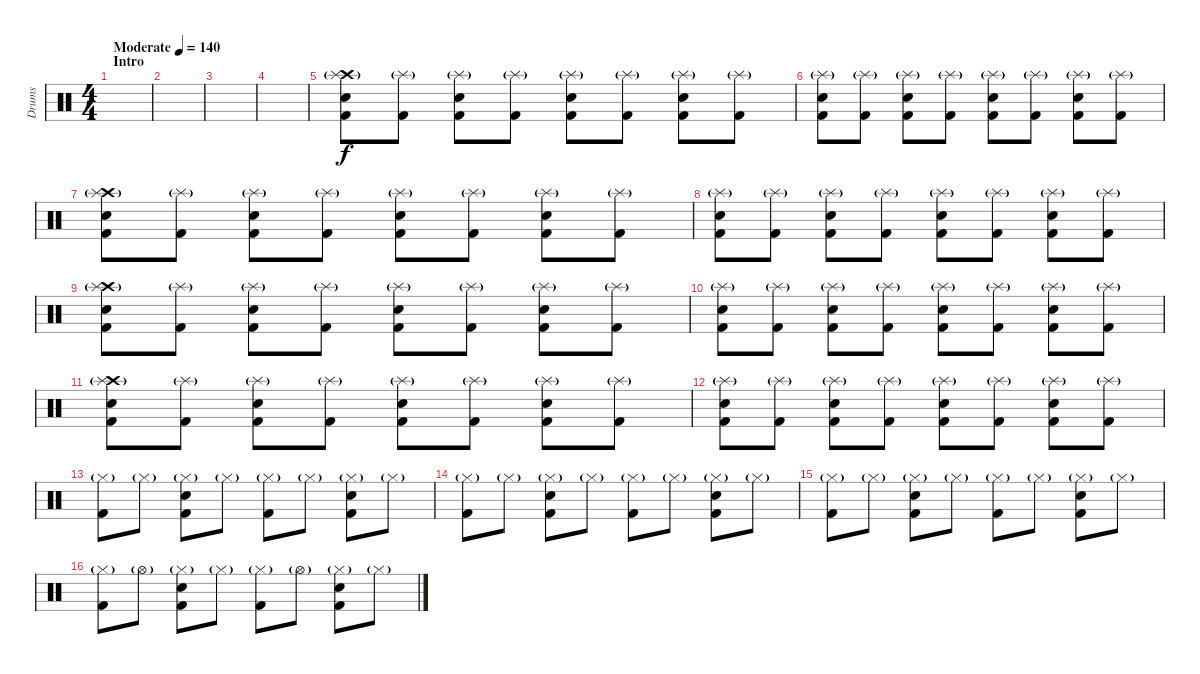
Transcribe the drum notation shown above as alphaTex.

\track ("Drums" "Drums") {instrument percussion}
\staff {score}
\articulation defaults
\ts (4 4)
\section ("" "Intro")
\tempo (140 "Moderate")
\clef neutral
\ks c
|
|
|
|
("Crash high (hit)" "Splash (hit)"{g} "Electric Snare (hit)" "Kick (hit) 2").8 ("Splash (hit)"{g} "Kick (hit) 2").8 ("Splash (hit)"{g} "Electric Snare (hit)" "Kick (hit) 2").8 ("Splash (hit)"{g} "Kick (hit) 2").8 ("Splash (hit)"{g} "Electric Snare (hit)" "Kick (hit) 2").8 ("Splash (hit)"{g} "Kick (hit) 2").8 ("Splash (hit)"{g} "Electric Snare (hit)" "Kick (hit) 2").8 ("Splash (hit)"{g} "Kick (hit) 2").8 |
("Splash (hit)"{g} "Electric Snare (hit)" "Kick (hit) 2").8 ("Splash (hit)"{g} "Kick (hit) 2").8 ("Splash (hit)"{g} "Electric Snare (hit)" "Kick (hit) 2").8 ("Splash (hit)"{g} "Kick (hit) 2").8 ("Splash (hit)"{g} "Electric Snare (hit)" "Kick (hit) 2").8 ("Splash (hit)"{g} "Kick (hit) 2").8 ("Splash (hit)"{g} "Electric Snare (hit)" "Kick (hit) 2").8 ("Splash (hit)"{g} "Kick (hit) 2").8 |
("Crash high (hit)" "Splash (hit)"{g} "Electric Snare (hit)" "Kick (hit) 2").8 ("Splash (hit)"{g} "Kick (hit) 2").8 ("Splash (hit)"{g} "Electric Snare (hit)" "Kick (hit) 2").8 ("Splash (hit)"{g} "Kick (hit) 2").8 ("Splash (hit)"{g} "Electric Snare (hit)" "Kick (hit) 2").8 ("Splash (hit)"{g} "Kick (hit) 2").8 ("Splash (hit)"{g} "Electric Snare (hit)" "Kick (hit) 2").8 ("Splash (hit)"{g} "Kick (hit) 2").8 |
("Splash (hit)"{g} "Electric Snare (hit)" "Kick (hit) 2").8 ("Splash (hit)"{g} "Kick (hit) 2").8 ("Splash (hit)"{g} "Electric Snare (hit)" "Kick (hit) 2").8 ("Splash (hit)"{g} "Kick (hit) 2").8 ("Splash (hit)"{g} "Electric Snare (hit)" "Kick (hit) 2").8 ("Splash (hit)"{g} "Kick (hit) 2").8 ("Splash (hit)"{g} "Electric Snare (hit)" "Kick (hit) 2").8 ("Splash (hit)"{g} "Kick (hit) 2").8 |
("Crash high (hit)" "Splash (hit)"{g} "Electric Snare (hit)" "Kick (hit) 2").8 ("Splash (hit)"{g} "Kick (hit) 2").8 ("Splash (hit)"{g} "Electric Snare (hit)" "Kick (hit) 2").8 ("Splash (hit)"{g} "Kick (hit) 2").8 ("Splash (hit)"{g} "Electric Snare (hit)" "Kick (hit) 2").8 ("Splash (hit)"{g} "Kick (hit) 2").8 ("Splash (hit)"{g} "Electric Snare (hit)" "Kick (hit) 2").8 ("Splash (hit)"{g} "Kick (hit) 2").8 |
("Splash (hit)"{g} "Electric Snare (hit)" "Kick (hit) 2").8 ("Splash (hit)"{g} "Kick (hit) 2").8 ("Splash (hit)"{g} "Electric Snare (hit)" "Kick (hit) 2").8 ("Splash (hit)"{g} "Kick (hit) 2").8 ("Splash (hit)"{g} "Electric Snare (hit)" "Kick (hit) 2").8 ("Splash (hit)"{g} "Kick (hit) 2").8 ("Splash (hit)"{g} "Electric Snare (hit)" "Kick (hit) 2").8 ("Splash (hit)"{g} "Kick (hit) 2").8 |
("Crash high (hit)" "Splash (hit)"{g} "Electric Snare (hit)" "Kick (hit) 2").8 ("Splash (hit)"{g} "Kick (hit) 2").8 ("Splash (hit)"{g} "Electric Snare (hit)" "Kick (hit) 2").8 ("Splash (hit)"{g} "Kick (hit) 2").8 ("Splash (hit)"{g} "Electric Snare (hit)" "Kick (hit) 2").8 ("Splash (hit)"{g} "Kick (hit) 2").8 ("Splash (hit)"{g} "Electric Snare (hit)" "Kick (hit) 2").8 ("Splash (hit)"{g} "Kick (hit) 2").8 |
("Splash (hit)"{g} "Electric Snare (hit)" "Kick (hit) 2").8 ("Splash (hit)"{g} "Kick (hit) 2").8 ("Splash (hit)"{g} "Electric Snare (hit)" "Kick (hit) 2").8 ("Splash (hit)"{g} "Kick (hit) 2").8 ("Splash (hit)"{g} "Electric Snare (hit)" "Kick (hit) 2").8 ("Splash (hit)"{g} "Kick (hit) 2").8 ("Splash (hit)"{g} "Electric Snare (hit)" "Kick (hit) 2").8 ("Splash (hit)"{g} "Kick (hit) 2").8 |
("Hi-Hat (closed)"{g} "Kick (hit) 2").8 "Hi-Hat (closed)"{g}.8 ("Hi-Hat (closed)"{g} "Electric Snare (hit)" "Kick (hit) 2").8 "Hi-Hat (closed)"{g}.8 ("Hi-Hat (closed)"{g} "Kick (hit) 2").8 "Hi-Hat (closed)"{g}.8 ("Hi-Hat (closed)"{g} "Electric Snare (hit)" "Kick (hit) 2").8 "Hi-Hat (closed)"{g}.8 |
("Hi-Hat (closed)"{g} "Kick (hit) 2").8 "Hi-Hat (closed)"{g}.8 ("Hi-Hat (closed)"{g} "Electric Snare (hit)" "Kick (hit) 2").8 "Hi-Hat (closed)"{g}.8 ("Hi-Hat (closed)"{g} "Kick (hit) 2").8 "Hi-Hat (closed)"{g}.8 ("Hi-Hat (closed)"{g} "Electric Snare (hit)" "Kick (hit) 2").8 "Hi-Hat (closed)"{g}.8 |
("Hi-Hat (closed)"{g} "Kick (hit) 2").8 "Hi-Hat (closed)"{g}.8 ("Hi-Hat (closed)"{g} "Electric Snare (hit)" "Kick (hit) 2").8 "Hi-Hat (closed)"{g}.8 ("Hi-Hat (closed)"{g} "Kick (hit) 2").8 "Hi-Hat (closed)"{g}.8 ("Hi-Hat (closed)"{g} "Electric Snare (hit)" "Kick (hit) 2").8 "Hi-Hat (closed)"{g}.8 |
("Hi-Hat (closed)"{g} "Kick (hit) 2").8 "Hi-Hat (open)"{g}.8 ("Hi-Hat (closed)"{g} "Electric Snare (hit)" "Kick (hit) 2").8 "Hi-Hat (closed)"{g}.8 ("Hi-Hat (closed)"{g} "Kick (hit) 2").8 "Hi-Hat (open)"{g}.8 ("Hi-Hat (closed)"{g} "Electric Snare (hit)" "Kick (hit) 2").8 "Hi-Hat (closed)"{g}.8
